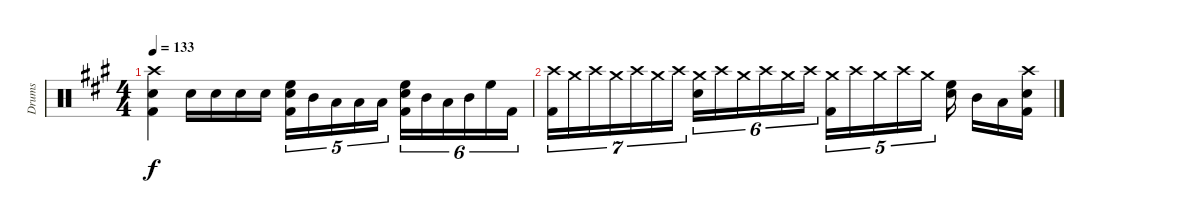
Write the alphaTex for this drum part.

\track ("Drums" "Drums") {instrument percussion}
\staff {score}
\articulation defaults
\ts (4 4)
\tempo 133
\clef neutral
\ks a
("Crash high (hit)" "Snare (hit) 2" "Kick (hit) 2").4{dy f} "Snare (hit) 2".16 "Snare (hit) 2".16 "Snare (hit) 2".16 "Snare (hit) 2".16 ("High Floor Tom (hit)" "Snare (hit) 2" "Kick (hit) 2").16{tu (5 4)} "Mid Tom (hit)".16{tu (5 4)} "Low Tom (hit)".16{tu (5 4)} "Low Floor Tom (hit)".16{tu (5 4)} "Low Tom (hit)".16{tu (5 4)} ("High Floor Tom (hit)" "Snare (hit) 2" "Kick (hit) 2").16{tu (6 4)} "Mid Tom (hit)".16{tu (6 4)} "Low Tom (hit)".16{tu (6 4)} "Mid Tom (hit)".16{tu (6 4)} "High Floor Tom (hit)".16{tu (6 4)} "Kick (hit) 2".16{tu (6 4)} |
("Crash high (hit)" "Kick (hit) 2").16{tu (7 4)} "Crash medium (hit)".16{tu (7 4)} "Crash high (hit)".16{tu (7 4)} "Crash medium (hit)".16{tu (7 4)} "Crash high (hit)".16{tu (7 4)} "Crash medium (hit)".16{tu (7 4)} "Crash high (hit)".16{tu (7 4)} ("Crash medium (hit)" "Snare (hit) 2").16{tu (6 4)} "Crash high (hit)".16{tu (6 4)} "Crash medium (hit)".16{tu (6 4)} "Crash high (hit)".16{tu (6 4)} "Crash medium (hit)".16{tu (6 4)} "Crash high (hit)".16{tu (6 4)} ("Crash medium (hit)" "Kick (hit) 2").16{tu (5 4)} "Crash high (hit)".16{tu (5 4)} "Crash medium (hit)".16{tu (5 4)} "Crash high (hit)".16{tu (5 4)} "Crash medium (hit)".16{tu (5 4)} ("High Floor Tom (hit)" "Snare (hit) 2").16 "Mid Tom (hit)".16 "Low Tom (hit)".16 ("Crash high (hit)" "Snare (hit) 2" "Kick (hit) 2").16
